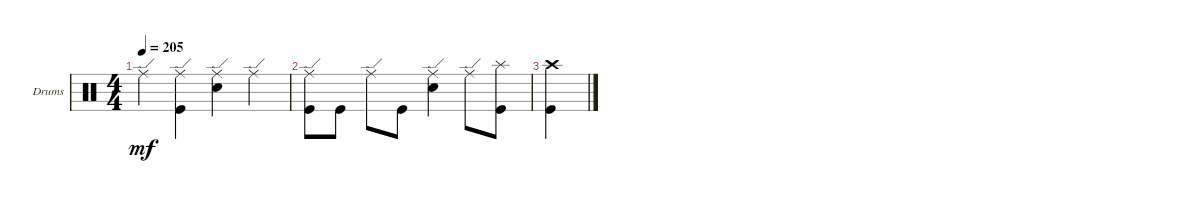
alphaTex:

\bracketExtendMode groupsimilarinstruments
\firstSystemTrackNameOrientation horizontal
\otherSystemsTrackNameOrientation horizontal
\track ("Drumkit" "Drums") {instrument percussion}
\staff {score}
\articulation defaults
\ts (4 4)
\tempo 205
\clef neutral
\ks c "Ride (edge)".4{dy mf}
("Kick (hit)" "Ride (edge)").4 ("Snare (hit) 2" "Ride (edge)").4 "Ride (edge)".4 |
("Ride (edge)" "Kick (hit)").8 "Kick (hit)".8 "Ride (edge)".8 "Kick (hit)".8 ("Snare (hit) 2" "Ride (edge)").4 "Ride (edge)".8 ("Kick (hit)" "Splash (hit)").8 |
("Kick (hit)" "Crash high (hit)").4
